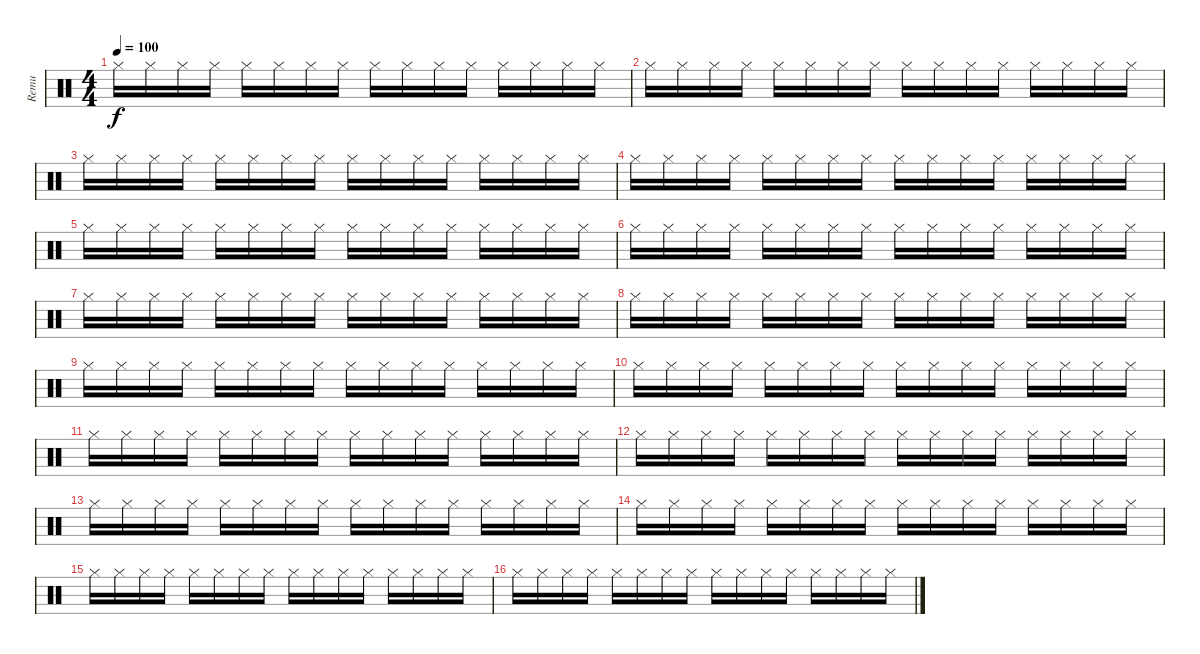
\track ("Remu" "Remu") {instrument percussion}
\staff {score}
\articulation defaults
\ts (4 4)
\tempo 100
\clef neutral
\ks c "Hi-Hat (closed)".16{dy f} "Hi-Hat (closed)".16 "Hi-Hat (closed)".16 "Hi-Hat (closed)".16 "Hi-Hat (closed)".16 "Hi-Hat (closed)".16 "Hi-Hat (closed)".16 "Hi-Hat (closed)".16 "Hi-Hat (closed)".16 "Hi-Hat (closed)".16 "Hi-Hat (closed)".16 "Hi-Hat (closed)".16 "Hi-Hat (closed)".16 "Hi-Hat (closed)".16 "Hi-Hat (closed)".16 "Hi-Hat (closed)".16
|
"Hi-Hat (closed)".16 "Hi-Hat (closed)".16 "Hi-Hat (closed)".16 "Hi-Hat (closed)".16 "Hi-Hat (closed)".16 "Hi-Hat (closed)".16 "Hi-Hat (closed)".16 "Hi-Hat (closed)".16 "Hi-Hat (closed)".16 "Hi-Hat (closed)".16 "Hi-Hat (closed)".16 "Hi-Hat (closed)".16 "Hi-Hat (closed)".16 "Hi-Hat (closed)".16 "Hi-Hat (closed)".16 "Hi-Hat (closed)".16 |
"Hi-Hat (closed)".16 "Hi-Hat (closed)".16 "Hi-Hat (closed)".16 "Hi-Hat (closed)".16 "Hi-Hat (closed)".16 "Hi-Hat (closed)".16 "Hi-Hat (closed)".16 "Hi-Hat (closed)".16 "Hi-Hat (closed)".16 "Hi-Hat (closed)".16 "Hi-Hat (closed)".16 "Hi-Hat (closed)".16 "Hi-Hat (closed)".16 "Hi-Hat (closed)".16 "Hi-Hat (closed)".16 "Hi-Hat (closed)".16 |
"Hi-Hat (closed)".16 "Hi-Hat (closed)".16 "Hi-Hat (closed)".16 "Hi-Hat (closed)".16 "Hi-Hat (closed)".16 "Hi-Hat (closed)".16 "Hi-Hat (closed)".16 "Hi-Hat (closed)".16 "Hi-Hat (closed)".16 "Hi-Hat (closed)".16 "Hi-Hat (closed)".16 "Hi-Hat (closed)".16 "Hi-Hat (closed)".16 "Hi-Hat (closed)".16 "Hi-Hat (closed)".16 "Hi-Hat (closed)".16 |
"Hi-Hat (closed)".16 "Hi-Hat (closed)".16 "Hi-Hat (closed)".16 "Hi-Hat (closed)".16 "Hi-Hat (closed)".16 "Hi-Hat (closed)".16 "Hi-Hat (closed)".16 "Hi-Hat (closed)".16 "Hi-Hat (closed)".16 "Hi-Hat (closed)".16 "Hi-Hat (closed)".16 "Hi-Hat (closed)".16 "Hi-Hat (closed)".16 "Hi-Hat (closed)".16 "Hi-Hat (closed)".16 "Hi-Hat (closed)".16 |
"Hi-Hat (closed)".16 "Hi-Hat (closed)".16 "Hi-Hat (closed)".16 "Hi-Hat (closed)".16 "Hi-Hat (closed)".16 "Hi-Hat (closed)".16 "Hi-Hat (closed)".16 "Hi-Hat (closed)".16 "Hi-Hat (closed)".16 "Hi-Hat (closed)".16 "Hi-Hat (closed)".16 "Hi-Hat (closed)".16 "Hi-Hat (closed)".16 "Hi-Hat (closed)".16 "Hi-Hat (closed)".16 "Hi-Hat (closed)".16 |
"Hi-Hat (closed)".16 "Hi-Hat (closed)".16 "Hi-Hat (closed)".16 "Hi-Hat (closed)".16 "Hi-Hat (closed)".16 "Hi-Hat (closed)".16 "Hi-Hat (closed)".16 "Hi-Hat (closed)".16 "Hi-Hat (closed)".16 "Hi-Hat (closed)".16 "Hi-Hat (closed)".16 "Hi-Hat (closed)".16 "Hi-Hat (closed)".16 "Hi-Hat (closed)".16 "Hi-Hat (closed)".16 "Hi-Hat (closed)".16 |
"Hi-Hat (closed)".16 "Hi-Hat (closed)".16 "Hi-Hat (closed)".16 "Hi-Hat (closed)".16 "Hi-Hat (closed)".16 "Hi-Hat (closed)".16 "Hi-Hat (closed)".16 "Hi-Hat (closed)".16 "Hi-Hat (closed)".16 "Hi-Hat (closed)".16 "Hi-Hat (closed)".16 "Hi-Hat (closed)".16 "Hi-Hat (closed)".16 "Hi-Hat (closed)".16 "Hi-Hat (closed)".16 "Hi-Hat (closed)".16 |
"Hi-Hat (closed)".16 "Hi-Hat (closed)".16 "Hi-Hat (closed)".16 "Hi-Hat (closed)".16 "Hi-Hat (closed)".16 "Hi-Hat (closed)".16 "Hi-Hat (closed)".16 "Hi-Hat (closed)".16 "Hi-Hat (closed)".16 "Hi-Hat (closed)".16 "Hi-Hat (closed)".16 "Hi-Hat (closed)".16 "Hi-Hat (closed)".16 "Hi-Hat (closed)".16 "Hi-Hat (closed)".16 "Hi-Hat (closed)".16 |
"Hi-Hat (closed)".16 "Hi-Hat (closed)".16 "Hi-Hat (closed)".16 "Hi-Hat (closed)".16 "Hi-Hat (closed)".16 "Hi-Hat (closed)".16 "Hi-Hat (closed)".16 "Hi-Hat (closed)".16 "Hi-Hat (closed)".16 "Hi-Hat (closed)".16 "Hi-Hat (closed)".16 "Hi-Hat (closed)".16 "Hi-Hat (closed)".16 "Hi-Hat (closed)".16 "Hi-Hat (closed)".16 "Hi-Hat (closed)".16 |
"Hi-Hat (closed)".16 "Hi-Hat (closed)".16 "Hi-Hat (closed)".16 "Hi-Hat (closed)".16 "Hi-Hat (closed)".16 "Hi-Hat (closed)".16 "Hi-Hat (closed)".16 "Hi-Hat (closed)".16 "Hi-Hat (closed)".16 "Hi-Hat (closed)".16 "Hi-Hat (closed)".16 "Hi-Hat (closed)".16 "Hi-Hat (closed)".16 "Hi-Hat (closed)".16 "Hi-Hat (closed)".16 "Hi-Hat (closed)".16 |
"Hi-Hat (closed)".16 "Hi-Hat (closed)".16 "Hi-Hat (closed)".16 "Hi-Hat (closed)".16 "Hi-Hat (closed)".16 "Hi-Hat (closed)".16 "Hi-Hat (closed)".16 "Hi-Hat (closed)".16 "Hi-Hat (closed)".16 "Hi-Hat (closed)".16 "Hi-Hat (closed)".16 "Hi-Hat (closed)".16 "Hi-Hat (closed)".16 "Hi-Hat (closed)".16 "Hi-Hat (closed)".16 "Hi-Hat (closed)".16 |
"Hi-Hat (closed)".16 "Hi-Hat (closed)".16 "Hi-Hat (closed)".16 "Hi-Hat (closed)".16 "Hi-Hat (closed)".16 "Hi-Hat (closed)".16 "Hi-Hat (closed)".16 "Hi-Hat (closed)".16 "Hi-Hat (closed)".16 "Hi-Hat (closed)".16 "Hi-Hat (closed)".16 "Hi-Hat (closed)".16 "Hi-Hat (closed)".16 "Hi-Hat (closed)".16 "Hi-Hat (closed)".16 "Hi-Hat (closed)".16 |
"Hi-Hat (closed)".16 "Hi-Hat (closed)".16 "Hi-Hat (closed)".16 "Hi-Hat (closed)".16 "Hi-Hat (closed)".16 "Hi-Hat (closed)".16 "Hi-Hat (closed)".16 "Hi-Hat (closed)".16 "Hi-Hat (closed)".16 "Hi-Hat (closed)".16 "Hi-Hat (closed)".16 "Hi-Hat (closed)".16 "Hi-Hat (closed)".16 "Hi-Hat (closed)".16 "Hi-Hat (closed)".16 "Hi-Hat (closed)".16 |
"Hi-Hat (closed)".16 "Hi-Hat (closed)".16 "Hi-Hat (closed)".16 "Hi-Hat (closed)".16 "Hi-Hat (closed)".16 "Hi-Hat (closed)".16 "Hi-Hat (closed)".16 "Hi-Hat (closed)".16 "Hi-Hat (closed)".16 "Hi-Hat (closed)".16 "Hi-Hat (closed)".16 "Hi-Hat (closed)".16 "Hi-Hat (closed)".16 "Hi-Hat (closed)".16 "Hi-Hat (closed)".16 "Hi-Hat (closed)".16 |
"Hi-Hat (closed)".16 "Hi-Hat (closed)".16 "Hi-Hat (closed)".16 "Hi-Hat (closed)".16 "Hi-Hat (closed)".16 "Hi-Hat (closed)".16 "Hi-Hat (closed)".16 "Hi-Hat (closed)".16 "Hi-Hat (closed)".16 "Hi-Hat (closed)".16 "Hi-Hat (closed)".16 "Hi-Hat (closed)".16 "Hi-Hat (closed)".16 "Hi-Hat (closed)".16 "Hi-Hat (closed)".16 "Hi-Hat (closed)".16
